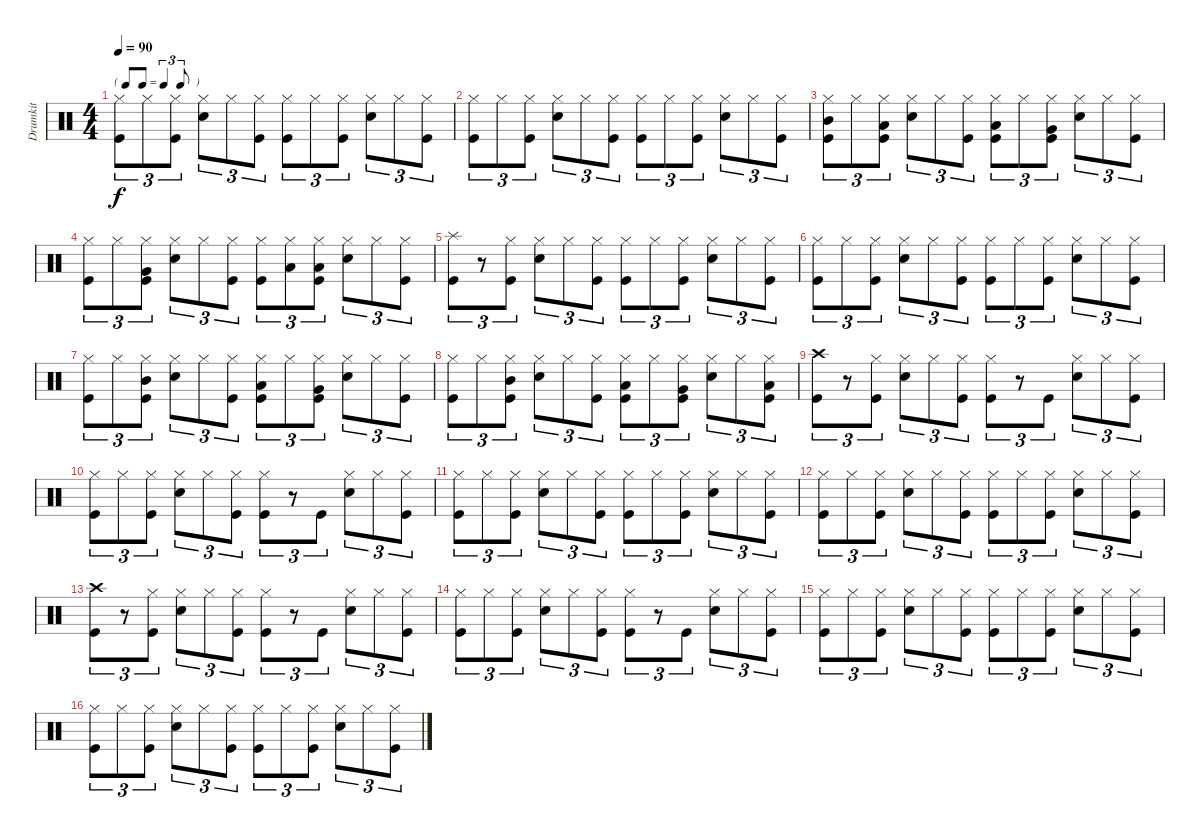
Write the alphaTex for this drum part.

\track ("Drumkit" "Drumkit") {instrument percussion}
\staff {score}
\articulation defaults
\ts (4 4)
\tf triplet8th
\tempo 90
\clef neutral
\ks c
("Hi-Hat (closed)" "Kick (hit)").8{tu (3 2) dy f} "Hi-Hat (closed)".8{tu (3 2)} ("Hi-Hat (closed)" "Kick (hit)").8{tu (3 2)} ("Hi-Hat (closed)" "Snare (hit) 2").8{tu (3 2)} "Hi-Hat (closed)".8{tu (3 2)} ("Hi-Hat (closed)" "Kick (hit)").8{tu (3 2)} ("Hi-Hat (closed)" "Kick (hit)").8{tu (3 2)} "Hi-Hat (closed)".8{tu (3 2)} ("Hi-Hat (closed)" "Kick (hit)").8{tu (3 2)} ("Hi-Hat (closed)" "Snare (hit) 2").8{tu (3 2)} "Hi-Hat (closed)".8{tu (3 2)} ("Hi-Hat (closed)" "Kick (hit)").8{tu (3 2)} |
("Hi-Hat (closed)" "Kick (hit)").8{tu (3 2)} "Hi-Hat (closed)".8{tu (3 2)} ("Hi-Hat (closed)" "Kick (hit)").8{tu (3 2)} ("Hi-Hat (closed)" "Snare (hit) 2").8{tu (3 2)} "Hi-Hat (closed)".8{tu (3 2)} ("Hi-Hat (closed)" "Kick (hit)").8{tu (3 2)} ("Hi-Hat (closed)" "Kick (hit)").8{tu (3 2)} "Hi-Hat (closed)".8{tu (3 2)} ("Hi-Hat (closed)" "Kick (hit)").8{tu (3 2)} ("Hi-Hat (closed)" "Snare (hit) 2").8{tu (3 2)} "Hi-Hat (closed)".8{tu (3 2)} ("Hi-Hat (closed)" "Kick (hit)").8{tu (3 2)} |
("Hi-Hat (closed)" "Mid Tom (hit)" "Kick (hit)").8{tu (3 2)} "Hi-Hat (closed)".8{tu (3 2)} ("Hi-Hat (closed)" "Low Tom (hit)" "Kick (hit)").8{tu (3 2)} ("Hi-Hat (closed)" "Snare (hit) 2").8{tu (3 2)} "Hi-Hat (closed)".8{tu (3 2)} ("Hi-Hat (closed)" "Kick (hit)").8{tu (3 2)} ("Hi-Hat (closed)" "Low Tom (hit)" "Kick (hit)").8{tu (3 2)} "Hi-Hat (closed)".8{tu (3 2)} ("Hi-Hat (closed)" "Very Low Tom (hit)" "Kick (hit)").8{tu (3 2)} ("Hi-Hat (closed)" "Snare (hit) 2").8{tu (3 2)} "Hi-Hat (closed)".8{tu (3 2)} ("Hi-Hat (closed)" "Kick (hit)").8{tu (3 2)} |
("Hi-Hat (closed)" "Kick (hit)").8{tu (3 2)} "Hi-Hat (closed)".8{tu (3 2)} ("Hi-Hat (closed)" "Very Low Tom (hit)" "Kick (hit)").8{tu (3 2)} ("Hi-Hat (closed)" "Snare (hit) 2").8{tu (3 2)} "Hi-Hat (closed)".8{tu (3 2)} ("Hi-Hat (closed)" "Kick (hit)").8{tu (3 2)} ("Hi-Hat (closed)" "Kick (hit)").8{tu (3 2)} ("Hi-Hat (closed)" "Low Floor Tom (hit)").8{tu (3 2)} ("Hi-Hat (closed)" "Low Tom (hit)" "Kick (hit)").8{tu (3 2)} ("Hi-Hat (closed)" "Snare (hit) 2").8{tu (3 2)} "Hi-Hat (closed)".8{tu (3 2)} ("Hi-Hat (closed)" "Kick (hit)").8{tu (3 2)} |
("Splash (hit)" "Kick (hit)").8{tu (3 2)} r.8{tu (3 2)} ("Hi-Hat (closed)" "Kick (hit)").8{tu (3 2)} ("Hi-Hat (closed)" "Snare (hit) 2").8{tu (3 2)} "Hi-Hat (closed)".8{tu (3 2)} ("Hi-Hat (closed)" "Kick (hit)").8{tu (3 2)} ("Hi-Hat (closed)" "Kick (hit)").8{tu (3 2)} "Hi-Hat (closed)".8{tu (3 2)} ("Hi-Hat (closed)" "Kick (hit)").8{tu (3 2)} ("Hi-Hat (closed)" "Snare (hit) 2").8{tu (3 2)} "Hi-Hat (closed)".8{tu (3 2)} ("Hi-Hat (closed)" "Kick (hit)").8{tu (3 2)} |
("Hi-Hat (closed)" "Kick (hit)").8{tu (3 2)} "Hi-Hat (closed)".8{tu (3 2)} ("Hi-Hat (closed)" "Kick (hit)").8{tu (3 2)} ("Hi-Hat (closed)" "Snare (hit) 2").8{tu (3 2)} "Hi-Hat (closed)".8{tu (3 2)} ("Hi-Hat (closed)" "Kick (hit)").8{tu (3 2)} ("Hi-Hat (closed)" "Kick (hit)").8{tu (3 2)} "Hi-Hat (closed)".8{tu (3 2)} ("Hi-Hat (closed)" "Kick (hit)").8{tu (3 2)} ("Hi-Hat (closed)" "Snare (hit) 2").8{tu (3 2)} "Hi-Hat (closed)".8{tu (3 2)} ("Hi-Hat (closed)" "Kick (hit)").8{tu (3 2)} |
("Hi-Hat (closed)" "Kick (hit)").8{tu (3 2)} "Hi-Hat (closed)".8{tu (3 2)} ("Hi-Hat (closed)" "Mid Tom (hit)" "Kick (hit)").8{tu (3 2)} ("Hi-Hat (closed)" "Snare (hit) 2").8{tu (3 2)} "Hi-Hat (closed)".8{tu (3 2)} ("Hi-Hat (closed)" "Kick (hit)").8{tu (3 2)} ("Hi-Hat (closed)" "Low Tom (hit)" "Kick (hit)").8{tu (3 2)} "Hi-Hat (closed)".8{tu (3 2)} ("Hi-Hat (closed)" "Very Low Tom (hit)" "Kick (hit)").8{tu (3 2)} ("Hi-Hat (closed)" "Snare (hit) 2").8{tu (3 2)} "Hi-Hat (closed)".8{tu (3 2)} ("Hi-Hat (closed)" "Kick (hit)").8{tu (3 2)} |
("Hi-Hat (closed)" "Kick (hit)").8{tu (3 2)} "Hi-Hat (closed)".8{tu (3 2)} ("Hi-Hat (closed)" "Mid Tom (hit)" "Kick (hit)").8{tu (3 2)} ("Hi-Hat (closed)" "Snare (hit) 2").8{tu (3 2)} "Hi-Hat (closed)".8{tu (3 2)} ("Hi-Hat (closed)" "Kick (hit)").8{tu (3 2)} ("Hi-Hat (closed)" "Low Tom (hit)" "Kick (hit)").8{tu (3 2)} "Hi-Hat (closed)".8{tu (3 2)} ("Hi-Hat (closed)" "Very Low Tom (hit)" "Kick (hit)").8{tu (3 2)} ("Hi-Hat (closed)" "Snare (hit) 2").8{tu (3 2)} "Hi-Hat (closed)".8{tu (3 2)} ("Hi-Hat (closed)" "Low Floor Tom (hit)" "Kick (hit)").8{tu (3 2)} |
("Crash high (hit)" "Kick (hit)").8{tu (3 2)} r.8{tu (3 2)} ("Hi-Hat (closed)" "Kick (hit)").8{tu (3 2)} ("Hi-Hat (closed)" "Snare (hit) 2").8{tu (3 2)} "Hi-Hat (closed)".8{tu (3 2)} ("Hi-Hat (closed)" "Kick (hit)").8{tu (3 2)} ("Hi-Hat (closed)" "Kick (hit)").8{tu (3 2)} r.8{tu (3 2)} "Kick (hit)".8{tu (3 2)} ("Hi-Hat (closed)" "Snare (hit) 2").8{tu (3 2)} "Hi-Hat (closed)".8{tu (3 2)} ("Hi-Hat (closed)" "Kick (hit)").8{tu (3 2)} |
("Hi-Hat (closed)" "Kick (hit)").8{tu (3 2)} "Hi-Hat (closed)".8{tu (3 2)} ("Hi-Hat (closed)" "Kick (hit)").8{tu (3 2)} ("Hi-Hat (closed)" "Snare (hit) 2").8{tu (3 2)} "Hi-Hat (closed)".8{tu (3 2)} ("Hi-Hat (closed)" "Kick (hit)").8{tu (3 2)} ("Hi-Hat (closed)" "Kick (hit)").8{tu (3 2)} r.8{tu (3 2)} "Kick (hit)".8{tu (3 2)} ("Hi-Hat (closed)" "Snare (hit) 2").8{tu (3 2)} "Hi-Hat (closed)".8{tu (3 2)} ("Hi-Hat (closed)" "Kick (hit)").8{tu (3 2)} |
("Hi-Hat (closed)" "Kick (hit)").8{tu (3 2)} "Hi-Hat (closed)".8{tu (3 2)} ("Hi-Hat (closed)" "Kick (hit)").8{tu (3 2)} ("Hi-Hat (closed)" "Snare (hit) 2").8{tu (3 2)} "Hi-Hat (closed)".8{tu (3 2)} ("Hi-Hat (closed)" "Kick (hit)").8{tu (3 2)} ("Hi-Hat (closed)" "Kick (hit)").8{tu (3 2)} "Hi-Hat (closed)".8{tu (3 2)} ("Hi-Hat (closed)" "Kick (hit)").8{tu (3 2)} ("Hi-Hat (closed)" "Snare (hit) 2").8{tu (3 2)} "Hi-Hat (closed)".8{tu (3 2)} ("Hi-Hat (closed)" "Kick (hit)").8{tu (3 2)} |
("Hi-Hat (closed)" "Kick (hit)").8{tu (3 2)} "Hi-Hat (closed)".8{tu (3 2)} ("Hi-Hat (closed)" "Kick (hit)").8{tu (3 2)} ("Hi-Hat (closed)" "Snare (hit) 2").8{tu (3 2)} "Hi-Hat (closed)".8{tu (3 2)} ("Hi-Hat (closed)" "Kick (hit)").8{tu (3 2)} ("Hi-Hat (closed)" "Kick (hit)").8{tu (3 2)} "Hi-Hat (closed)".8{tu (3 2)} ("Hi-Hat (closed)" "Kick (hit)").8{tu (3 2)} ("Hi-Hat (closed)" "Snare (hit) 2").8{tu (3 2)} "Hi-Hat (closed)".8{tu (3 2)} ("Hi-Hat (closed)" "Kick (hit)").8{tu (3 2)} |
("Crash high (hit)" "Kick (hit)").8{tu (3 2)} r.8{tu (3 2)} ("Hi-Hat (closed)" "Kick (hit)").8{tu (3 2)} ("Hi-Hat (closed)" "Snare (hit) 2").8{tu (3 2)} "Hi-Hat (closed)".8{tu (3 2)} ("Hi-Hat (closed)" "Kick (hit)").8{tu (3 2)} ("Hi-Hat (closed)" "Kick (hit)").8{tu (3 2)} r.8{tu (3 2)} "Kick (hit)".8{tu (3 2)} ("Hi-Hat (closed)" "Snare (hit) 2").8{tu (3 2)} "Hi-Hat (closed)".8{tu (3 2)} ("Hi-Hat (closed)" "Kick (hit)").8{tu (3 2)} |
("Hi-Hat (closed)" "Kick (hit)").8{tu (3 2)} "Hi-Hat (closed)".8{tu (3 2)} ("Hi-Hat (closed)" "Kick (hit)").8{tu (3 2)} ("Hi-Hat (closed)" "Snare (hit) 2").8{tu (3 2)} "Hi-Hat (closed)".8{tu (3 2)} ("Hi-Hat (closed)" "Kick (hit)").8{tu (3 2)} ("Hi-Hat (closed)" "Kick (hit)").8{tu (3 2)} r.8{tu (3 2)} "Kick (hit)".8{tu (3 2)} ("Hi-Hat (closed)" "Snare (hit) 2").8{tu (3 2)} "Hi-Hat (closed)".8{tu (3 2)} ("Hi-Hat (closed)" "Kick (hit)").8{tu (3 2)} |
("Hi-Hat (closed)" "Kick (hit)").8{tu (3 2)} "Hi-Hat (closed)".8{tu (3 2)} ("Hi-Hat (closed)" "Kick (hit)").8{tu (3 2)} ("Hi-Hat (closed)" "Snare (hit) 2").8{tu (3 2)} "Hi-Hat (closed)".8{tu (3 2)} ("Hi-Hat (closed)" "Kick (hit)").8{tu (3 2)} ("Hi-Hat (closed)" "Kick (hit)").8{tu (3 2)} "Hi-Hat (closed)".8{tu (3 2)} ("Hi-Hat (closed)" "Kick (hit)").8{tu (3 2)} ("Hi-Hat (closed)" "Snare (hit) 2").8{tu (3 2)} "Hi-Hat (closed)".8{tu (3 2)} ("Hi-Hat (closed)" "Kick (hit)").8{tu (3 2)} |
("Hi-Hat (closed)" "Kick (hit)").8{tu (3 2)} "Hi-Hat (closed)".8{tu (3 2)} ("Hi-Hat (closed)" "Kick (hit)").8{tu (3 2)} ("Hi-Hat (closed)" "Snare (hit) 2").8{tu (3 2)} "Hi-Hat (closed)".8{tu (3 2)} ("Hi-Hat (closed)" "Kick (hit)").8{tu (3 2)} ("Hi-Hat (closed)" "Kick (hit)").8{tu (3 2)} "Hi-Hat (closed)".8{tu (3 2)} ("Hi-Hat (closed)" "Kick (hit)").8{tu (3 2)} ("Hi-Hat (closed)" "Snare (hit) 2").8{tu (3 2)} "Hi-Hat (closed)".8{tu (3 2)} ("Hi-Hat (closed)" "Kick (hit)").8{tu (3 2)}
